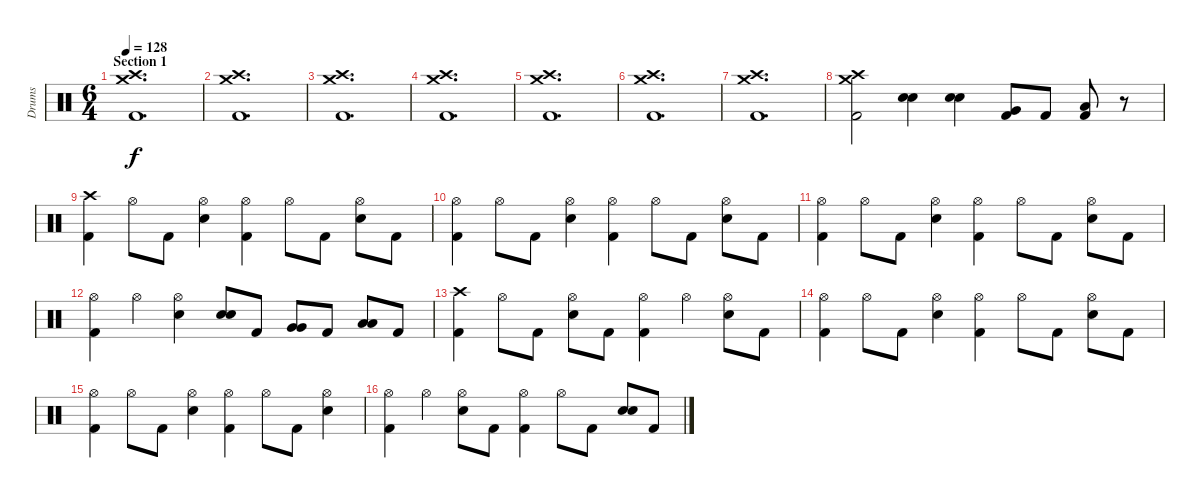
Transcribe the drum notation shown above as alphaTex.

\track ("Drums" "Drums") {instrument percussion}
\staff {score}
\articulation defaults
\ts (6 4)
\section ("" "Section 1")
\tempo 128
\clef neutral
\ks c
("Crash high (hit)" "Crash medium (hit)" "Kick (hit) 2").1{d dy f} |
("Crash high (hit)" "Crash medium (hit)" "Kick (hit) 2").1{d} |
("Crash high (hit)" "Crash medium (hit)" "Kick (hit) 2").1{d} |
("Crash high (hit)" "Crash medium (hit)" "Kick (hit) 2").1{d} |
("Crash high (hit)" "Crash medium (hit)" "Kick (hit) 2").1{d} |
("Crash high (hit)" "Crash medium (hit)" "Kick (hit) 2").1{d} |
("Crash high (hit)" "Crash medium (hit)" "Kick (hit) 2").1{d} |
("Crash high (hit)" "Crash medium (hit)" "Kick (hit) 2").2 ("Electric Snare (hit)" "Electric Snare (hit)").4{bu 120} ("Electric Snare (hit)" "Electric Snare (hit)").4{bu 120} ("Very Low Tom (hit)" "Kick (hit) 2").8 "Kick (hit) 2".8 ("Low Floor Tom (hit)" "Kick (hit) 2").8 r.8 |
("Crash high (hit)" "Kick (hit) 2").4 "Hi-Hat (open)".8 "Kick (hit) 2".8 ("Hi-Hat (open)" "Electric Snare (hit)").4 ("Hi-Hat (open)" "Kick (hit) 2").4 "Hi-Hat (open)".8 "Kick (hit) 2".8 ("Hi-Hat (open)" "Electric Snare (hit)").8 "Kick (hit) 2".8 |
("Hi-Hat (open)" "Kick (hit) 2").4 "Hi-Hat (open)".8 "Kick (hit) 2".8 ("Hi-Hat (open)" "Electric Snare (hit)").4 ("Hi-Hat (open)" "Kick (hit) 2").4 "Hi-Hat (open)".8 "Kick (hit) 2".8 ("Hi-Hat (open)" "Electric Snare (hit)").8 "Kick (hit) 2".8 |
("Hi-Hat (open)" "Kick (hit) 2").4 "Hi-Hat (open)".8 "Kick (hit) 2".8 ("Hi-Hat (open)" "Electric Snare (hit)").4 ("Hi-Hat (open)" "Kick (hit) 2").4 "Hi-Hat (open)".8 "Kick (hit) 2".8 ("Hi-Hat (open)" "Electric Snare (hit)").8 "Kick (hit) 2".8 |
("Hi-Hat (open)" "Kick (hit) 2").4 "Hi-Hat (open)".4 ("Hi-Hat (open)" "Electric Snare (hit)").4 ("Electric Snare (hit)" "Electric Snare (hit)").8{bu 120} "Kick (hit) 2".8 ("Very Low Tom (hit)" "Very Low Tom (hit)").8{bu 120} "Kick (hit) 2".8 ("Low Floor Tom (hit)" "Low Floor Tom (hit)").8{bu 120} "Kick (hit) 2".8 |
("Crash high (hit)" "Kick (hit) 2").4 "Hi-Hat (open)".8 "Kick (hit) 2".8 ("Hi-Hat (open)" "Electric Snare (hit)").8 "Kick (hit) 2".8 ("Hi-Hat (open)" "Kick (hit) 2").4 "Hi-Hat (open)".4 ("Hi-Hat (open)" "Electric Snare (hit)").8 "Kick (hit) 2".8 |
("Hi-Hat (open)" "Kick (hit) 2").4 "Hi-Hat (open)".8 "Kick (hit) 2".8 ("Hi-Hat (open)" "Electric Snare (hit)").4 ("Hi-Hat (open)" "Kick (hit) 2").4 "Hi-Hat (open)".8 "Kick (hit) 2".8 ("Hi-Hat (open)" "Electric Snare (hit)").8 "Kick (hit) 2".8 |
("Hi-Hat (open)" "Kick (hit) 2").4 "Hi-Hat (open)".8 "Kick (hit) 2".8 ("Hi-Hat (open)" "Electric Snare (hit)").4 ("Hi-Hat (open)" "Kick (hit) 2").4 "Hi-Hat (open)".8 "Kick (hit) 2".8 ("Hi-Hat (open)" "Electric Snare (hit)").4 |
("Hi-Hat (open)" "Kick (hit) 2").4 "Hi-Hat (open)".4 ("Hi-Hat (open)" "Electric Snare (hit)").8 "Kick (hit) 2".8 ("Hi-Hat (open)" "Kick (hit) 2").4 "Hi-Hat (open)".8 "Kick (hit) 2".8 ("Electric Snare (hit)" "Electric Snare (hit)").8{bu 60} "Kick (hit) 2".8
